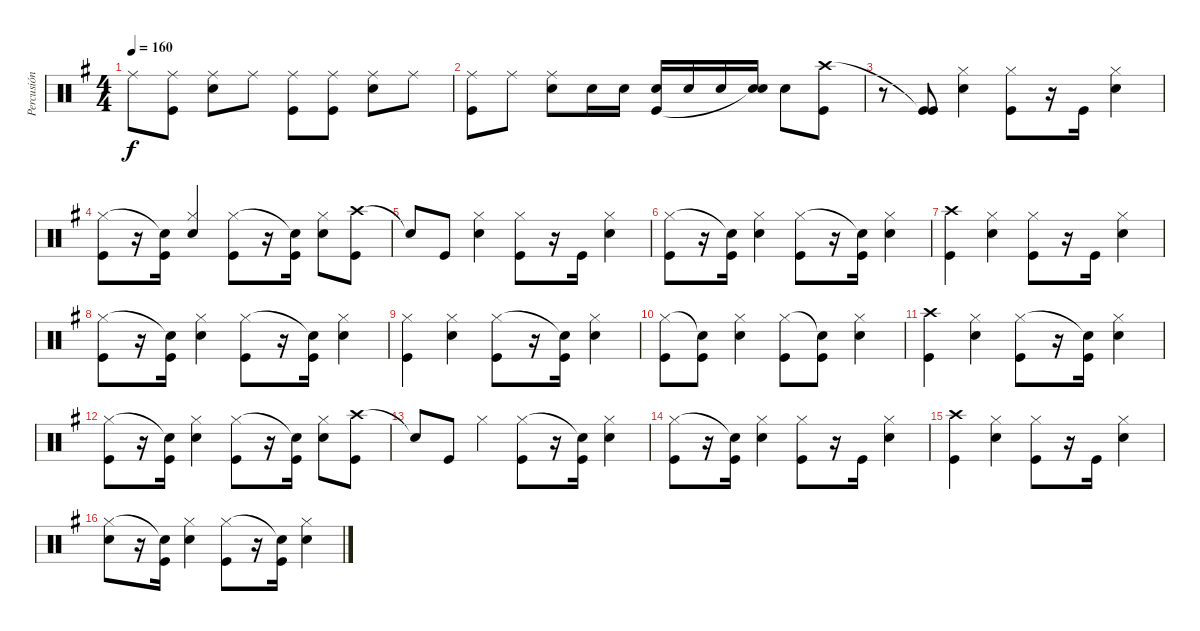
\track ("Percusión" "Percusión") {instrument percussion}
\staff {score}
\articulation defaults
\ts (4 4)
\tempo 160
\clef neutral
\ks g "Ride (middle)".8{dy f}
("Ride (middle)" "Kick (hit)").8 ("Ride (middle)" "Snare (hit) 2").8 "Ride (middle)".8 ("Ride (middle)" "Kick (hit)").8 ("Ride (middle)" "Kick (hit)").8 ("Ride (middle)" "Snare (hit) 2").8 "Ride (middle)".8 |
("Ride (middle)" "Kick (hit)").8 "Ride (middle)".8 ("Ride (middle)" "Snare (hit) 2").8 "Snare (hit) 2".16 "Snare (hit) 2".16 ("Snare (hit) 2" "Kick (hit)").16 "Snare (hit) 2".16 "Snare (hit) 2".16 ("Snare (hit) 2" "Snare (hit)"{t}).16 "Snare (hit) 2".8 ("Crash high (hit)" "Kick (hit)").8 |
r.8 ("Kick (hit)"{t} "Kick (hit)").8 ("Hi-Hat (closed)" "Snare (hit) 2").4 ("Hi-Hat (closed)" "Kick (hit)").8 r.16 "Kick (hit)".16 ("Hi-Hat (closed)" "Snare (hit) 2").4 |
("Hi-Hat (closed)" "Kick (hit)").8 r.16 ("Snare (hit)"{t} "Kick (hit)").16 ("Hi-Hat (closed)" "Snare (hit) 2").4{beam Up} ("Hi-Hat (closed)" "Kick (hit)").8 r.16 ("Snare (hit)"{t} "Kick (hit)").16 ("Hi-Hat (closed)" "Snare (hit) 2").8 ("Crash high (hit)" "Kick (hit)").8 |
"Snare (hit)"{t}.8 "Kick (hit)".8 ("Hi-Hat (closed)" "Snare (hit) 2").4 ("Hi-Hat (closed)" "Kick (hit)").8 r.16 "Kick (hit)".16 ("Hi-Hat (closed)" "Snare (hit) 2").4 |
("Hi-Hat (closed)" "Kick (hit)").8 r.16 ("Snare (hit)"{t} "Kick (hit)").16 ("Hi-Hat (closed)" "Snare (hit) 2").4 ("Hi-Hat (closed)" "Kick (hit)").8 r.16 ("Snare (hit)"{t} "Kick (hit)").16 ("Hi-Hat (closed)" "Snare (hit) 2").4 |
("Crash high (hit)" "Kick (hit)").4 ("Hi-Hat (closed)" "Snare (hit) 2").4 ("Hi-Hat (closed)" "Kick (hit)").8 r.16 "Kick (hit)".16 ("Hi-Hat (closed)" "Snare (hit) 2").4 |
("Hi-Hat (closed)" "Kick (hit)").8 r.16 ("Snare (hit)"{t} "Kick (hit)").16 ("Hi-Hat (closed)" "Snare (hit) 2").4 ("Hi-Hat (closed)" "Kick (hit)").8 r.16 ("Snare (hit)"{t} "Kick (hit)").16 ("Hi-Hat (closed)" "Snare (hit) 2").4 |
("Hi-Hat (closed)" "Kick (hit)").4 ("Hi-Hat (closed)" "Snare (hit) 2").4 ("Hi-Hat (closed)" "Kick (hit)").8 r.16 ("Snare (hit)"{t} "Kick (hit)").16 ("Hi-Hat (closed)" "Snare (hit) 2").4 |
("Hi-Hat (closed)" "Kick (hit)").8 ("Snare (hit)"{t} "Kick (hit)").8 ("Hi-Hat (closed)" "Snare (hit) 2").4 ("Hi-Hat (closed)" "Kick (hit)").8 ("Snare (hit)"{t} "Kick (hit)").8 ("Hi-Hat (closed)" "Snare (hit) 2").4 |
("Crash high (hit)" "Kick (hit)").4 ("Hi-Hat (closed)" "Snare (hit) 2").4 ("Hi-Hat (closed)" "Kick (hit)").8 r.16 ("Snare (hit)"{t} "Kick (hit)").16 ("Hi-Hat (closed)" "Snare (hit) 2").4 |
("Hi-Hat (closed)" "Kick (hit)").8 r.16 ("Snare (hit)"{t} "Kick (hit)").16 ("Hi-Hat (closed)" "Snare (hit) 2").4 ("Hi-Hat (closed)" "Kick (hit)").8 r.16 ("Snare (hit)"{t} "Kick (hit)").16 ("Hi-Hat (closed)" "Snare (hit) 2").8 ("Crash high (hit)" "Kick (hit)").8 |
"Snare (hit)"{t}.8 "Kick (hit)".8 "Hi-Hat (closed)".4 ("Hi-Hat (closed)" "Kick (hit)").8 r.16 ("Snare (hit)"{t} "Kick (hit)").16 ("Hi-Hat (closed)" "Snare (hit) 2").4 |
("Hi-Hat (closed)" "Kick (hit)").8 r.16 ("Snare (hit)"{t} "Kick (hit)").16 ("Hi-Hat (closed)" "Snare (hit) 2").4 ("Hi-Hat (closed)" "Kick (hit)").8 r.16 "Kick (hit)".16 ("Hi-Hat (closed)" "Snare (hit) 2").4 |
("Crash high (hit)" "Kick (hit)").4 ("Hi-Hat (closed)" "Snare (hit) 2").4 ("Hi-Hat (closed)" "Kick (hit)").8 r.16 "Kick (hit)".16 ("Hi-Hat (closed)" "Snare (hit) 2").4 |
("Hi-Hat (closed)" "Snare (hit)").8 r.16 ("Snare (hit)"{t} "Kick (hit)").16 ("Hi-Hat (closed)" "Snare (hit) 2").4 ("Hi-Hat (closed)" "Kick (hit)").8 r.16 ("Snare (hit)"{t} "Kick (hit)").16 ("Hi-Hat (closed)" "Snare (hit) 2").4
